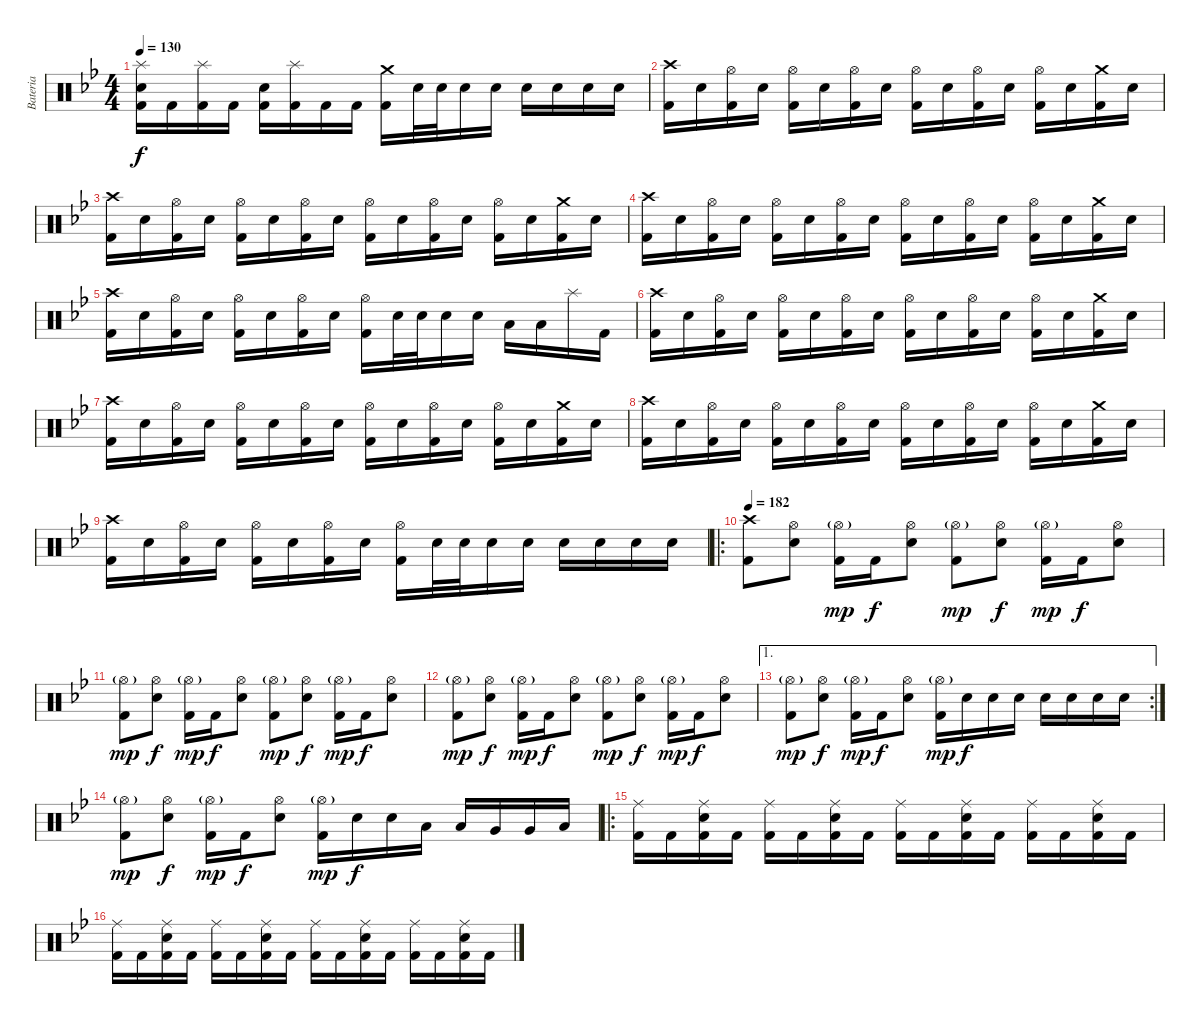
\track ("Bateria" "Bateria") {instrument percussion}
\staff {score}
\articulation defaults
\ts (4 4)
\tempo 130
\clef neutral
\ks gminor
("Splash (hit)" "Electric Snare (hit)" "Kick (hit) 2").16{dy f} "Kick (hit) 2".16 ("Splash (hit)" "Kick (hit) 2").16 "Kick (hit) 2".16 ("Electric Snare (hit)" "Kick (hit) 2").16 ("Splash (hit)" "Kick (hit) 2").16 "Kick (hit) 2".16 "Kick (hit) 2".16 ("Crash medium (hit)" "Kick (hit) 2").16 "Electric Snare (hit)".32 "Electric Snare (hit)".32 "Electric Snare (hit)".16 "Electric Snare (hit)".16 "Electric Snare (hit)".16 "Electric Snare (hit)".16 "Electric Snare (hit)".16 "Electric Snare (hit)".16 |
("Crash high (hit)" "Kick (hit) 2").16 "Electric Snare (hit)".16 ("Hi-Hat (open)" "Kick (hit) 2").16 "Electric Snare (hit)".16 ("Hi-Hat (open)" "Kick (hit) 2").16 "Electric Snare (hit)".16 ("Hi-Hat (open)" "Kick (hit) 2").16 "Electric Snare (hit)".16 ("Hi-Hat (open)" "Kick (hit) 2").16 "Electric Snare (hit)".16 ("Hi-Hat (open)" "Kick (hit) 2").16 "Electric Snare (hit)".16 ("Hi-Hat (open)" "Kick (hit) 2").16 "Electric Snare (hit)".16 ("Crash medium (hit)" "Kick (hit) 2").16 "Electric Snare (hit)".16 |
("Crash high (hit)" "Kick (hit) 2").16 "Electric Snare (hit)".16 ("Hi-Hat (open)" "Kick (hit) 2").16 "Electric Snare (hit)".16 ("Hi-Hat (open)" "Kick (hit) 2").16 "Electric Snare (hit)".16 ("Hi-Hat (open)" "Kick (hit) 2").16 "Electric Snare (hit)".16 ("Hi-Hat (open)" "Kick (hit) 2").16 "Electric Snare (hit)".16 ("Hi-Hat (open)" "Kick (hit) 2").16 "Electric Snare (hit)".16 ("Hi-Hat (open)" "Kick (hit) 2").16 "Electric Snare (hit)".16 ("Crash medium (hit)" "Kick (hit) 2").16 "Electric Snare (hit)".16 |
("Crash high (hit)" "Kick (hit) 2").16 "Electric Snare (hit)".16 ("Hi-Hat (open)" "Kick (hit) 2").16 "Electric Snare (hit)".16 ("Hi-Hat (open)" "Kick (hit) 2").16 "Electric Snare (hit)".16 ("Hi-Hat (open)" "Kick (hit) 2").16 "Electric Snare (hit)".16 ("Hi-Hat (open)" "Kick (hit) 2").16 "Electric Snare (hit)".16 ("Hi-Hat (open)" "Kick (hit) 2").16 "Electric Snare (hit)".16 ("Hi-Hat (open)" "Kick (hit) 2").16 "Electric Snare (hit)".16 ("Crash medium (hit)" "Kick (hit) 2").16 "Electric Snare (hit)".16 |
("Crash high (hit)" "Kick (hit) 2").16 "Electric Snare (hit)".16 ("Hi-Hat (open)" "Kick (hit) 2").16 "Electric Snare (hit)".16 ("Hi-Hat (open)" "Kick (hit) 2").16 "Electric Snare (hit)".16 ("Hi-Hat (open)" "Kick (hit) 2").16 "Electric Snare (hit)".16 ("Hi-Hat (open)" "Kick (hit) 2").16 "Electric Snare (hit)".32 "Electric Snare (hit)".32 "Electric Snare (hit)".16 "Electric Snare (hit)".16 "Low Tom (hit)".16 "Low Tom (hit)".16 "Splash (hit)".16 "Kick (hit) 2".16 |
("Crash high (hit)" "Kick (hit) 2").16 "Electric Snare (hit)".16 ("Hi-Hat (open)" "Kick (hit) 2").16 "Electric Snare (hit)".16 ("Hi-Hat (open)" "Kick (hit) 2").16 "Electric Snare (hit)".16 ("Hi-Hat (open)" "Kick (hit) 2").16 "Electric Snare (hit)".16 ("Hi-Hat (open)" "Kick (hit) 2").16 "Electric Snare (hit)".16 ("Hi-Hat (open)" "Kick (hit) 2").16 "Electric Snare (hit)".16 ("Hi-Hat (open)" "Kick (hit) 2").16 "Electric Snare (hit)".16 ("Crash medium (hit)" "Kick (hit) 2").16 "Electric Snare (hit)".16 |
("Crash high (hit)" "Kick (hit) 2").16 "Electric Snare (hit)".16 ("Hi-Hat (open)" "Kick (hit) 2").16 "Electric Snare (hit)".16 ("Hi-Hat (open)" "Kick (hit) 2").16 "Electric Snare (hit)".16 ("Hi-Hat (open)" "Kick (hit) 2").16 "Electric Snare (hit)".16 ("Hi-Hat (open)" "Kick (hit) 2").16 "Electric Snare (hit)".16 ("Hi-Hat (open)" "Kick (hit) 2").16 "Electric Snare (hit)".16 ("Hi-Hat (open)" "Kick (hit) 2").16 "Electric Snare (hit)".16 ("Crash medium (hit)" "Kick (hit) 2").16 "Electric Snare (hit)".16 |
("Crash high (hit)" "Kick (hit) 2").16 "Electric Snare (hit)".16 ("Hi-Hat (open)" "Kick (hit) 2").16 "Electric Snare (hit)".16 ("Hi-Hat (open)" "Kick (hit) 2").16 "Electric Snare (hit)".16 ("Hi-Hat (open)" "Kick (hit) 2").16 "Electric Snare (hit)".16 ("Hi-Hat (open)" "Kick (hit) 2").16 "Electric Snare (hit)".16 ("Hi-Hat (open)" "Kick (hit) 2").16 "Electric Snare (hit)".16 ("Hi-Hat (open)" "Kick (hit) 2").16 "Electric Snare (hit)".16 ("Crash medium (hit)" "Kick (hit) 2").16 "Electric Snare (hit)".16 |
("Crash high (hit)" "Kick (hit) 2").16 "Electric Snare (hit)".16 ("Hi-Hat (open)" "Kick (hit) 2").16 "Electric Snare (hit)".16 ("Hi-Hat (open)" "Kick (hit) 2").16 "Electric Snare (hit)".16 ("Hi-Hat (open)" "Kick (hit) 2").16 "Electric Snare (hit)".16 ("Hi-Hat (open)" "Kick (hit) 2").16 "Electric Snare (hit)".32 "Electric Snare (hit)".32 "Electric Snare (hit)".16 "Electric Snare (hit)".16 "Electric Snare (hit)".16 "Electric Snare (hit)".16 "Electric Snare (hit)".16 "Electric Snare (hit)".16 |
\ro
\tempo 182
("Crash high (hit)" "Kick (hit) 2").8 ("Hi-Hat (open)" "Electric Snare (hit)").8 ("Hi-Hat (open)"{g} "Kick (hit) 2").16{dy mp} "Kick (hit) 2".16{dy f} ("Hi-Hat (open)" "Electric Snare (hit)").8 ("Hi-Hat (open)"{g} "Kick (hit) 2").8{dy mp} ("Hi-Hat (open)" "Electric Snare (hit)").8{dy f} ("Hi-Hat (open)"{g} "Kick (hit) 2").16{dy mp} "Kick (hit) 2".16{dy f} ("Hi-Hat (open)" "Electric Snare (hit)").8 |
("Hi-Hat (open)"{g} "Kick (hit) 2").8{dy mp} ("Hi-Hat (open)" "Electric Snare (hit)").8{dy f} ("Hi-Hat (open)"{g} "Kick (hit) 2").16{dy mp} "Kick (hit) 2".16{dy f} ("Hi-Hat (open)" "Electric Snare (hit)").8 ("Hi-Hat (open)"{g} "Kick (hit) 2").8{dy mp} ("Hi-Hat (open)" "Electric Snare (hit)").8{dy f} ("Hi-Hat (open)"{g} "Kick (hit) 2").16{dy mp} "Kick (hit) 2".16{dy f} ("Hi-Hat (open)" "Electric Snare (hit)").8 |
("Hi-Hat (open)"{g} "Kick (hit) 2").8{dy mp} ("Hi-Hat (open)" "Electric Snare (hit)").8{dy f} ("Hi-Hat (open)"{g} "Kick (hit) 2").16{dy mp} "Kick (hit) 2".16{dy f} ("Hi-Hat (open)" "Electric Snare (hit)").8 ("Hi-Hat (open)"{g} "Kick (hit) 2").8{dy mp} ("Hi-Hat (open)" "Electric Snare (hit)").8{dy f} ("Hi-Hat (open)"{g} "Kick (hit) 2").16{dy mp} "Kick (hit) 2".16{dy f} ("Hi-Hat (open)" "Electric Snare (hit)").8 |
\ae 1
\rc 2
("Hi-Hat (open)"{g} "Kick (hit) 2").8{dy mp} ("Hi-Hat (open)" "Electric Snare (hit)").8{dy f} ("Hi-Hat (open)"{g} "Kick (hit) 2").16{dy mp} "Kick (hit) 2".16{dy f} ("Hi-Hat (open)" "Electric Snare (hit)").8 ("Hi-Hat (open)"{g} "Kick (hit) 2").16{dy mp} "Electric Snare (hit)".16{dy f} "Electric Snare (hit)".16 "Electric Snare (hit)".16 "Electric Snare (hit)".16 "Electric Snare (hit)".16 "Electric Snare (hit)".16 "Electric Snare (hit)".16 |
("Hi-Hat (open)"{g} "Kick (hit) 2").8{dy mp} ("Hi-Hat (open)" "Electric Snare (hit)").8{dy f} ("Hi-Hat (open)"{g} "Kick (hit) 2").16{dy mp} "Kick (hit) 2".16{dy f} ("Hi-Hat (open)" "Electric Snare (hit)").8 ("Hi-Hat (open)"{g} "Kick (hit) 2").16{dy mp} "Electric Snare (hit)".16{dy f} "Electric Snare (hit)".16 "Low Tom (hit)".16 "Low Tom (hit)".16 "Very Low Tom (hit)".16 "Very Low Tom (hit)".16 "Low Floor Tom (hit)".16 |
\ro
("Ride (middle)" "Kick (hit) 2").16 "Kick (hit) 2".16 ("Ride (middle)" "Electric Snare (hit)" "Kick (hit) 2").16 "Kick (hit) 2".16 ("Ride (middle)" "Kick (hit) 2").16 "Kick (hit) 2".16 ("Ride (middle)" "Electric Snare (hit)" "Kick (hit) 2").16 "Kick (hit) 2".16 ("Ride (middle)" "Kick (hit) 2").16 "Kick (hit) 2".16 ("Ride (middle)" "Electric Snare (hit)" "Kick (hit) 2").16 "Kick (hit) 2".16 ("Ride (middle)" "Kick (hit) 2").16 "Kick (hit) 2".16 ("Ride (middle)" "Electric Snare (hit)" "Kick (hit) 2").16 "Kick (hit) 2".16 |
("Ride (middle)" "Kick (hit) 2").16 "Kick (hit) 2".16 ("Ride (middle)" "Electric Snare (hit)" "Kick (hit) 2").16 "Kick (hit) 2".16 ("Ride (middle)" "Kick (hit) 2").16 "Kick (hit) 2".16 ("Ride (middle)" "Electric Snare (hit)" "Kick (hit) 2").16 "Kick (hit) 2".16 ("Ride (middle)" "Kick (hit) 2").16 "Kick (hit) 2".16 ("Ride (middle)" "Electric Snare (hit)" "Kick (hit) 2").16 "Kick (hit) 2".16 ("Ride (middle)" "Kick (hit) 2").16 "Kick (hit) 2".16 ("Ride (middle)" "Electric Snare (hit)" "Kick (hit) 2").16 "Kick (hit) 2".16
